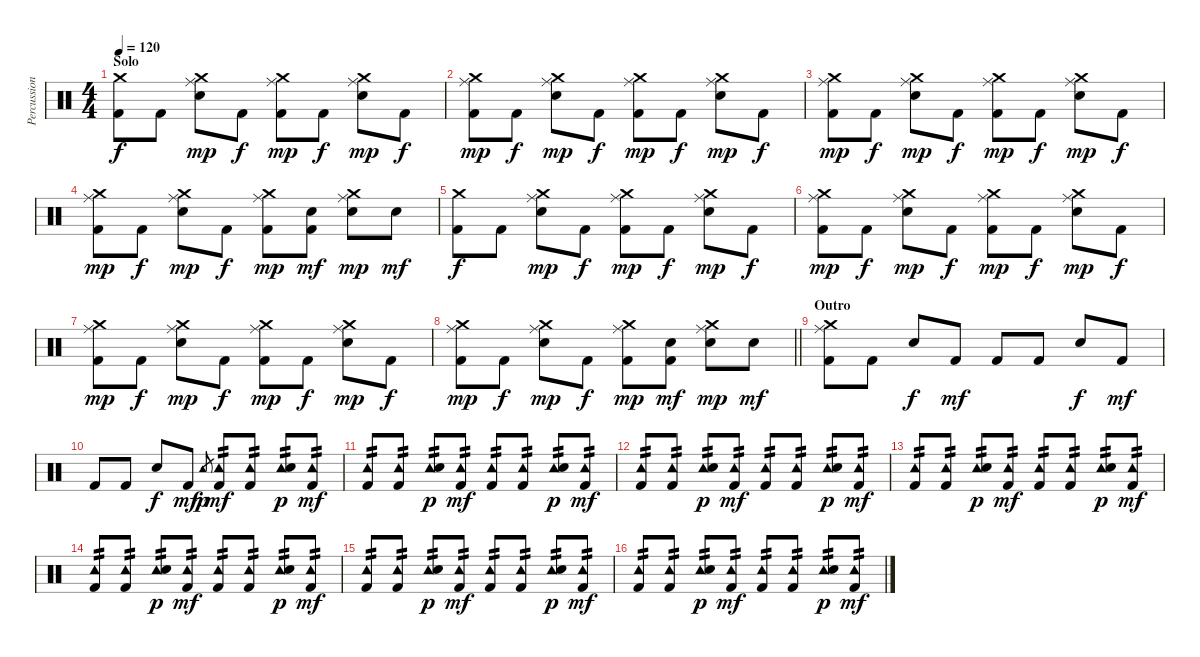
\track ("Percussion" "Percussion") {instrument percussion}
\staff {score}
\articulation defaults
\ts (4 4)
\section ("" "Solo")
\tempo 120
\clef neutral
\ks c
("Crash medium (hit)" "Kick (hit) 2").8{dy f} "Kick (hit) 2".8 ("Ride (middle)" "Crash medium (hit)" "Electric Snare (hit)").8{dy mp} "Kick (hit) 2".8{dy f} ("Ride (middle)" "Crash medium (hit)" "Kick (hit) 2").8{dy mp} "Kick (hit) 2".8{dy f} ("Ride (middle)" "Crash medium (hit)" "Electric Snare (hit)").8{dy mp} "Kick (hit) 2".8{dy f} |
("Ride (middle)" "Crash medium (hit)" "Kick (hit) 2").8{dy mp} "Kick (hit) 2".8{dy f} ("Ride (middle)" "Crash medium (hit)" "Electric Snare (hit)").8{dy mp} "Kick (hit) 2".8{dy f} ("Ride (middle)" "Crash medium (hit)" "Kick (hit) 2").8{dy mp} "Kick (hit) 2".8{dy f} ("Ride (middle)" "Crash medium (hit)" "Electric Snare (hit)").8{dy mp} "Kick (hit) 2".8{dy f} |
("Ride (middle)" "Crash medium (hit)" "Kick (hit) 2").8{dy mp} "Kick (hit) 2".8{dy f} ("Ride (middle)" "Crash medium (hit)" "Electric Snare (hit)").8{dy mp} "Kick (hit) 2".8{dy f} ("Ride (middle)" "Crash medium (hit)" "Kick (hit) 2").8{dy mp} "Kick (hit) 2".8{dy f} ("Ride (middle)" "Crash medium (hit)" "Electric Snare (hit)").8{dy mp} "Kick (hit) 2".8{dy f} |
("Ride (middle)" "Crash medium (hit)" "Kick (hit) 2").8{dy mp} "Kick (hit) 2".8{dy f} ("Ride (middle)" "Crash medium (hit)" "Electric Snare (hit)").8{dy mp} "Kick (hit) 2".8{dy f} ("Ride (middle)" "Crash medium (hit)" "Kick (hit) 2").8{dy mp} ("Electric Snare (hit)" "Kick (hit) 2").8{dy mf} ("Ride (middle)" "Crash medium (hit)" "Electric Snare (hit)").8{dy mp} "Electric Snare (hit)".8{dy mf} |
("Crash medium (hit)" "Kick (hit) 2").8{dy f} "Kick (hit) 2".8 ("Ride (middle)" "Crash medium (hit)" "Electric Snare (hit)").8{dy mp} "Kick (hit) 2".8{dy f} ("Ride (middle)" "Crash medium (hit)" "Kick (hit) 2").8{dy mp} "Kick (hit) 2".8{dy f} ("Ride (middle)" "Crash medium (hit)" "Electric Snare (hit)").8{dy mp} "Kick (hit) 2".8{dy f} |
("Ride (middle)" "Crash medium (hit)" "Kick (hit) 2").8{dy mp} "Kick (hit) 2".8{dy f} ("Ride (middle)" "Crash medium (hit)" "Electric Snare (hit)").8{dy mp} "Kick (hit) 2".8{dy f} ("Ride (middle)" "Crash medium (hit)" "Kick (hit) 2").8{dy mp} "Kick (hit) 2".8{dy f} ("Ride (middle)" "Crash medium (hit)" "Electric Snare (hit)").8{dy mp} "Kick (hit) 2".8{dy f} |
("Ride (middle)" "Crash medium (hit)" "Kick (hit) 2").8{dy mp} "Kick (hit) 2".8{dy f} ("Ride (middle)" "Crash medium (hit)" "Electric Snare (hit)").8{dy mp} "Kick (hit) 2".8{dy f} ("Ride (middle)" "Crash medium (hit)" "Kick (hit) 2").8{dy mp} "Kick (hit) 2".8{dy f} ("Ride (middle)" "Crash medium (hit)" "Electric Snare (hit)").8{dy mp} "Kick (hit) 2".8{dy f} |
\barLineRight lightlight
("Ride (middle)" "Crash medium (hit)" "Kick (hit) 2").8{dy mp} "Kick (hit) 2".8{dy f} ("Ride (middle)" "Crash medium (hit)" "Electric Snare (hit)").8{dy mp} "Kick (hit) 2".8{dy f} ("Ride (middle)" "Crash medium (hit)" "Kick (hit) 2").8{dy mp} ("Electric Snare (hit)" "Kick (hit) 2").8{dy mf} ("Ride (middle)" "Crash medium (hit)" "Electric Snare (hit)").8{dy mp} "Electric Snare (hit)".8{dy mf} |
\section ("" "Outro")
("Ride (middle)" "Crash medium (hit)" "Kick (hit) 2").8 "Kick (hit) 2".8 "Electric Snare (hit)".8{dy f} "Kick (hit) 2".8{dy mf} "Kick (hit) 2".8 "Kick (hit) 2".8 "Electric Snare (hit)".8{dy f} "Kick (hit) 2".8{dy mf} |
"Kick (hit) 2".8 "Kick (hit) 2".8 "Electric Snare (hit)".8{dy f} "Kick (hit) 2".8{dy mf} "Tambourine (hit)".8{gr dy p} ("Tambourine (hit)" "Kick (hit) 2").8{tp 2 dy mf} ("Tambourine (hit)" "Kick (hit) 2").8{tp 2} ("Tambourine (hit)" "Electric Snare (hit)").8{tp 2 dy p} ("Tambourine (hit)" "Kick (hit) 2").8{tp 2 dy mf} |
("Tambourine (hit)" "Kick (hit) 2").8{tp 2} ("Tambourine (hit)" "Kick (hit) 2").8{tp 2} ("Tambourine (hit)" "Electric Snare (hit)").8{tp 2 dy p} ("Tambourine (hit)" "Kick (hit) 2").8{tp 2 dy mf} ("Tambourine (hit)" "Kick (hit) 2").8{tp 2} ("Tambourine (hit)" "Kick (hit) 2").8{tp 2} ("Tambourine (hit)" "Electric Snare (hit)").8{tp 2 dy p} ("Tambourine (hit)" "Kick (hit) 2").8{tp 2 dy mf} |
("Tambourine (hit)" "Kick (hit) 2").8{tp 2} ("Tambourine (hit)" "Kick (hit) 2").8{tp 2} ("Tambourine (hit)" "Electric Snare (hit)").8{tp 2 dy p} ("Tambourine (hit)" "Kick (hit) 2").8{tp 2 dy mf} ("Tambourine (hit)" "Kick (hit) 2").8{tp 2} ("Tambourine (hit)" "Kick (hit) 2").8{tp 2} ("Tambourine (hit)" "Electric Snare (hit)").8{tp 2 dy p} ("Tambourine (hit)" "Kick (hit) 2").8{tp 2 dy mf} |
("Tambourine (hit)" "Kick (hit) 2").8{tp 2} ("Tambourine (hit)" "Kick (hit) 2").8{tp 2} ("Tambourine (hit)" "Electric Snare (hit)").8{tp 2 dy p} ("Tambourine (hit)" "Kick (hit) 2").8{tp 2 dy mf} ("Tambourine (hit)" "Kick (hit) 2").8{tp 2} ("Tambourine (hit)" "Kick (hit) 2").8{tp 2} ("Tambourine (hit)" "Electric Snare (hit)").8{tp 2 dy p} ("Tambourine (hit)" "Kick (hit) 2").8{tp 2 dy mf} |
("Tambourine (hit)" "Kick (hit) 2").8{tp 2} ("Tambourine (hit)" "Kick (hit) 2").8{tp 2} ("Tambourine (hit)" "Electric Snare (hit)").8{tp 2 dy p} ("Tambourine (hit)" "Kick (hit) 2").8{tp 2 dy mf} ("Tambourine (hit)" "Kick (hit) 2").8{tp 2} ("Tambourine (hit)" "Kick (hit) 2").8{tp 2} ("Tambourine (hit)" "Electric Snare (hit)").8{tp 2 dy p} ("Tambourine (hit)" "Kick (hit) 2").8{tp 2 dy mf} |
("Tambourine (hit)" "Kick (hit) 2").8{tp 2} ("Tambourine (hit)" "Kick (hit) 2").8{tp 2} ("Tambourine (hit)" "Electric Snare (hit)").8{tp 2 dy p} ("Tambourine (hit)" "Kick (hit) 2").8{tp 2 dy mf} ("Tambourine (hit)" "Kick (hit) 2").8{tp 2} ("Tambourine (hit)" "Kick (hit) 2").8{tp 2} ("Tambourine (hit)" "Electric Snare (hit)").8{tp 2 dy p} ("Tambourine (hit)" "Kick (hit) 2").8{tp 2 dy mf} |
("Tambourine (hit)" "Kick (hit) 2").8{tp 2} ("Tambourine (hit)" "Kick (hit) 2").8{tp 2} ("Tambourine (hit)" "Electric Snare (hit)").8{tp 2 dy p} ("Tambourine (hit)" "Kick (hit) 2").8{tp 2 dy mf} ("Tambourine (hit)" "Kick (hit) 2").8{tp 2} ("Tambourine (hit)" "Kick (hit) 2").8{tp 2} ("Tambourine (hit)" "Electric Snare (hit)").8{tp 2 dy p} ("Tambourine (hit)" "Kick (hit) 2").8{tp 2 dy mf}
